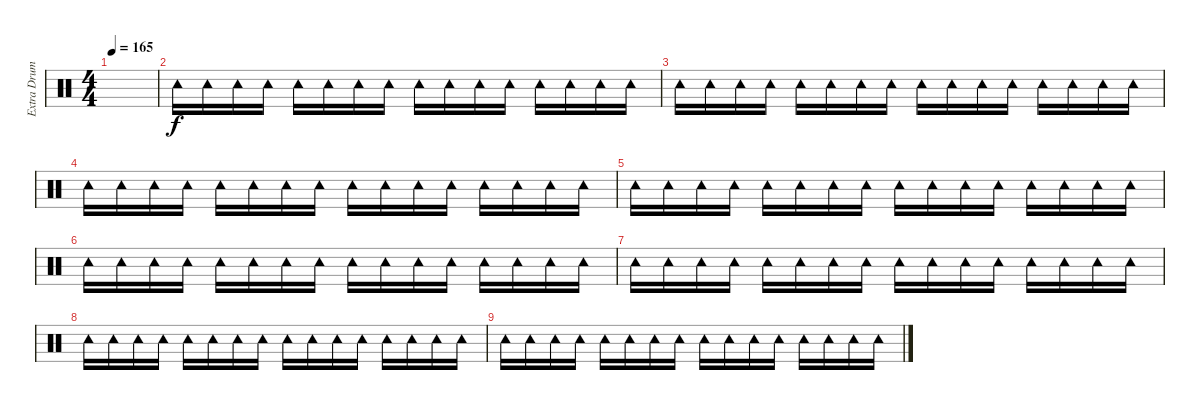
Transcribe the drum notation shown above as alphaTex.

\track ("Extra Drum : Tainaka Risu - Chan" "Extra Drum") {instrument percussion}
\staff {score}
\articulation defaults
\ts (4 4)
\tempo 165
\clef neutral
\ks c
|
"Tambourine (hit)".16 "Tambourine (hit)".16 "Tambourine (hit)".16 "Tambourine (hit)".16 "Tambourine (hit)".16 "Tambourine (hit)".16 "Tambourine (hit)".16 "Tambourine (hit)".16 "Tambourine (hit)".16 "Tambourine (hit)".16 "Tambourine (hit)".16 "Tambourine (hit)".16 "Tambourine (hit)".16 "Tambourine (hit)".16 "Tambourine (hit)".16 "Tambourine (hit)".16 |
"Tambourine (hit)".16 "Tambourine (hit)".16 "Tambourine (hit)".16 "Tambourine (hit)".16 "Tambourine (hit)".16 "Tambourine (hit)".16 "Tambourine (hit)".16 "Tambourine (hit)".16 "Tambourine (hit)".16 "Tambourine (hit)".16 "Tambourine (hit)".16 "Tambourine (hit)".16 "Tambourine (hit)".16 "Tambourine (hit)".16 "Tambourine (hit)".16 "Tambourine (hit)".16 |
"Tambourine (hit)".16 "Tambourine (hit)".16 "Tambourine (hit)".16 "Tambourine (hit)".16 "Tambourine (hit)".16 "Tambourine (hit)".16 "Tambourine (hit)".16 "Tambourine (hit)".16 "Tambourine (hit)".16 "Tambourine (hit)".16 "Tambourine (hit)".16 "Tambourine (hit)".16 "Tambourine (hit)".16 "Tambourine (hit)".16 "Tambourine (hit)".16 "Tambourine (hit)".16 |
"Tambourine (hit)".16 "Tambourine (hit)".16 "Tambourine (hit)".16 "Tambourine (hit)".16 "Tambourine (hit)".16 "Tambourine (hit)".16 "Tambourine (hit)".16 "Tambourine (hit)".16 "Tambourine (hit)".16 "Tambourine (hit)".16 "Tambourine (hit)".16 "Tambourine (hit)".16 "Tambourine (hit)".16 "Tambourine (hit)".16 "Tambourine (hit)".16 "Tambourine (hit)".16 |
"Tambourine (hit)".16 "Tambourine (hit)".16 "Tambourine (hit)".16 "Tambourine (hit)".16 "Tambourine (hit)".16 "Tambourine (hit)".16 "Tambourine (hit)".16 "Tambourine (hit)".16 "Tambourine (hit)".16 "Tambourine (hit)".16 "Tambourine (hit)".16 "Tambourine (hit)".16 "Tambourine (hit)".16 "Tambourine (hit)".16 "Tambourine (hit)".16 "Tambourine (hit)".16 |
"Tambourine (hit)".16 "Tambourine (hit)".16 "Tambourine (hit)".16 "Tambourine (hit)".16 "Tambourine (hit)".16 "Tambourine (hit)".16 "Tambourine (hit)".16 "Tambourine (hit)".16 "Tambourine (hit)".16 "Tambourine (hit)".16 "Tambourine (hit)".16 "Tambourine (hit)".16 "Tambourine (hit)".16 "Tambourine (hit)".16 "Tambourine (hit)".16 "Tambourine (hit)".16 |
"Tambourine (hit)".16 "Tambourine (hit)".16 "Tambourine (hit)".16 "Tambourine (hit)".16 "Tambourine (hit)".16 "Tambourine (hit)".16 "Tambourine (hit)".16 "Tambourine (hit)".16 "Tambourine (hit)".16 "Tambourine (hit)".16 "Tambourine (hit)".16 "Tambourine (hit)".16 "Tambourine (hit)".16 "Tambourine (hit)".16 "Tambourine (hit)".16 "Tambourine (hit)".16 |
"Tambourine (hit)".16 "Tambourine (hit)".16 "Tambourine (hit)".16 "Tambourine (hit)".16 "Tambourine (hit)".16 "Tambourine (hit)".16 "Tambourine (hit)".16 "Tambourine (hit)".16 "Tambourine (hit)".16 "Tambourine (hit)".16 "Tambourine (hit)".16 "Tambourine (hit)".16 "Tambourine (hit)".16 "Tambourine (hit)".16 "Tambourine (hit)".16 "Tambourine (hit)".16
